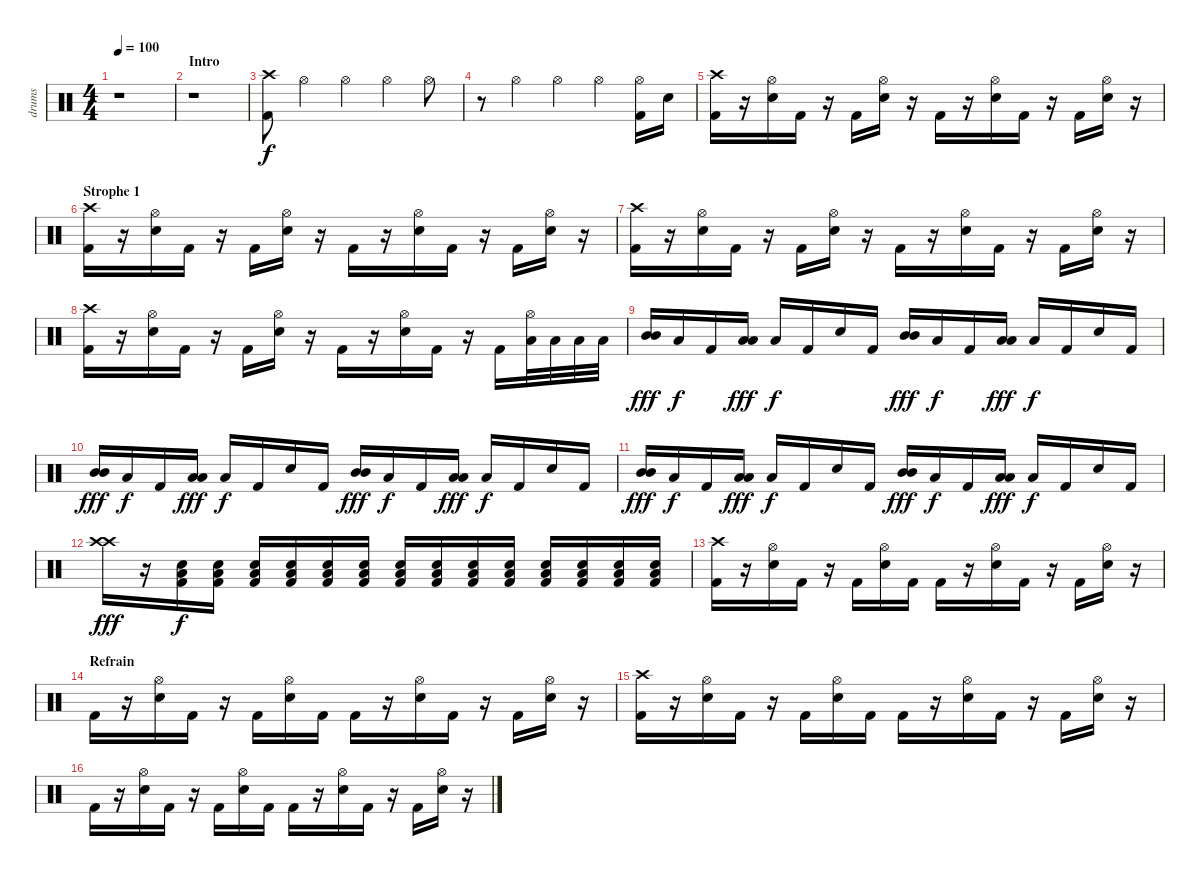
\track ("drums" "drums") {instrument percussion}
\staff {score}
\articulation defaults
\ts (4 4)
\section ("" "")
\tempo 100
\clef neutral
\ks c
r.1{dy f} |
\section ("" "Intro")
r.1 |
("Crash high (hit)" "Kick (hit) 2").8 "Hi-Hat (open)".4 "Hi-Hat (open)".4 "Hi-Hat (open)".4 "Hi-Hat (open)".8 |
r.8 "Hi-Hat (open)".4 "Hi-Hat (open)".4 "Hi-Hat (open)".4 ("Hi-Hat (open)" "Kick (hit) 2").16 "Electric Snare (hit)".16 |
("Crash high (hit)" "Kick (hit) 2").16 r.16 ("Hi-Hat (open)" "Electric Snare (hit)").16 "Kick (hit) 2".16 r.16 "Kick (hit) 2".16 ("Hi-Hat (open)" "Electric Snare (hit)").16 r.16 "Kick (hit) 2".16 r.16 ("Hi-Hat (open)" "Electric Snare (hit)").16 "Kick (hit) 2".16 r.16 "Kick (hit) 2".16 ("Hi-Hat (open)" "Electric Snare (hit)").16 r.16 |
\section ("" "Strophe 1")
("Crash high (hit)" "Kick (hit) 2").16 r.16 ("Hi-Hat (open)" "Electric Snare (hit)").16 "Kick (hit) 2".16 r.16 "Kick (hit) 2".16 ("Hi-Hat (open)" "Electric Snare (hit)").16 r.16 "Kick (hit) 2".16 r.16 ("Hi-Hat (open)" "Electric Snare (hit)").16 "Kick (hit) 2".16 r.16 "Kick (hit) 2".16 ("Hi-Hat (open)" "Electric Snare (hit)").16 r.16 |
("Crash high (hit)" "Kick (hit) 2").16 r.16 ("Hi-Hat (open)" "Electric Snare (hit)").16 "Kick (hit) 2".16 r.16 "Kick (hit) 2".16 ("Hi-Hat (open)" "Electric Snare (hit)").16 r.16 "Kick (hit) 2".16 r.16 ("Hi-Hat (open)" "Electric Snare (hit)").16 "Kick (hit) 2".16 r.16 "Kick (hit) 2".16 ("Hi-Hat (open)" "Electric Snare (hit)").16 r.16 |
("Crash high (hit)" "Kick (hit) 2").16 r.16 ("Hi-Hat (open)" "Electric Snare (hit)").16 "Kick (hit) 2".16 r.16 "Kick (hit) 2".16 ("Hi-Hat (open)" "Electric Snare (hit)").16 r.16 "Kick (hit) 2".16 r.16 ("Hi-Hat (open)" "Electric Snare (hit)").16 "Kick (hit) 2".16 r.16 "Kick (hit) 2".16 ("Hi-Hat (open)" "Low Tom (hit)").32 "Low Tom (hit)".32 "Low Tom (hit)".32 "Low Tom (hit)".32 |
("Mid Tom (hit)" "Mid Tom (hit)").16{dy fff} "Low Floor Tom (hit)".16{dy f} "Kick (hit) 2".16 ("Low Tom (hit)" "Low Tom (hit)").16{dy fff} "Low Floor Tom (hit)".16{dy f} "Kick (hit) 2".16 "Electric Snare (hit)".16 "Kick (hit) 2".16 ("Mid Tom (hit)" "Mid Tom (hit)").16{dy fff} "Low Floor Tom (hit)".16{dy f} "Kick (hit) 2".16 ("Low Tom (hit)" "Low Tom (hit)").16{dy fff} "Low Floor Tom (hit)".16{dy f} "Kick (hit) 2".16 "Electric Snare (hit)".16 "Kick (hit) 2".16 |
("Mid Tom (hit)" "Mid Tom (hit)").16{dy fff} "Low Floor Tom (hit)".16{dy f} "Kick (hit) 2".16 ("Low Tom (hit)" "Low Tom (hit)").16{dy fff} "Low Floor Tom (hit)".16{dy f} "Kick (hit) 2".16 "Electric Snare (hit)".16 "Kick (hit) 2".16 ("Mid Tom (hit)" "Mid Tom (hit)").16{dy fff} "Low Floor Tom (hit)".16{dy f} "Kick (hit) 2".16 ("Low Tom (hit)" "Low Tom (hit)").16{dy fff} "Low Floor Tom (hit)".16{dy f} "Kick (hit) 2".16 "Electric Snare (hit)".16 "Kick (hit) 2".16 |
("Mid Tom (hit)" "Mid Tom (hit)").16{dy fff} "Low Floor Tom (hit)".16{dy f} "Kick (hit) 2".16 ("Low Tom (hit)" "Low Tom (hit)").16{dy fff} "Low Floor Tom (hit)".16{dy f} "Kick (hit) 2".16 "Electric Snare (hit)".16 "Kick (hit) 2".16 ("Mid Tom (hit)" "Mid Tom (hit)").16{dy fff} "Low Floor Tom (hit)".16{dy f} "Kick (hit) 2".16 ("Low Tom (hit)" "Low Tom (hit)").16{dy fff} "Low Floor Tom (hit)".16{dy f} "Kick (hit) 2".16 "Electric Snare (hit)".16 "Kick (hit) 2".16 |
("Crash high (hit)" "Crash high (hit)").16{dy fff} r.16{volume 0} ("Electric Snare (hit)" "Low Floor Tom (hit)" "Kick (hit) 2").16{dy f volume 14} ("Electric Snare (hit)" "Low Floor Tom (hit)" "Kick (hit) 2").16 ("Electric Snare (hit)" "Low Floor Tom (hit)" "Kick (hit) 2").16 ("Electric Snare (hit)" "Low Floor Tom (hit)" "Kick (hit) 2").16 ("Electric Snare (hit)" "Low Floor Tom (hit)" "Kick (hit) 2").16 ("Electric Snare (hit)" "Low Floor Tom (hit)" "Kick (hit) 2").16 ("Electric Snare (hit)" "Low Floor Tom (hit)" "Kick (hit) 2").16 ("Electric Snare (hit)" "Low Floor Tom (hit)" "Kick (hit) 2").16 ("Electric Snare (hit)" "Low Floor Tom (hit)" "Kick (hit) 2").16 ("Electric Snare (hit)" "Low Floor Tom (hit)" "Kick (hit) 2").16 ("Electric Snare (hit)" "Low Floor Tom (hit)" "Kick (hit) 2").16 ("Electric Snare (hit)" "Low Floor Tom (hit)" "Kick (hit) 2").16 ("Electric Snare (hit)" "Low Floor Tom (hit)" "Kick (hit) 2").16 ("Electric Snare (hit)" "Low Floor Tom (hit)" "Kick (hit) 2").16 |
("Crash high (hit)" "Kick (hit) 2").16 r.16 ("Hi-Hat (open)" "Electric Snare (hit)").16 "Kick (hit) 2".16 r.16 "Kick (hit) 2".16 ("Hi-Hat (open)" "Electric Snare (hit)").16 "Kick (hit) 2".16 "Kick (hit) 2".16 r.16 ("Hi-Hat (open)" "Electric Snare (hit)").16 "Kick (hit) 2".16 r.16 "Kick (hit) 2".16 ("Hi-Hat (open)" "Electric Snare (hit)").16 r.16 |
\section ("" "Refrain")
"Kick (hit) 2".16 r.16 ("Hi-Hat (open)" "Electric Snare (hit)").16 "Kick (hit) 2".16 r.16 "Kick (hit) 2".16 ("Hi-Hat (open)" "Electric Snare (hit)").16 "Kick (hit) 2".16 "Kick (hit) 2".16 r.16 ("Hi-Hat (open)" "Electric Snare (hit)").16 "Kick (hit) 2".16 r.16 "Kick (hit) 2".16 ("Hi-Hat (open)" "Electric Snare (hit)").16 r.16 |
("Crash high (hit)" "Kick (hit) 2").16 r.16 ("Hi-Hat (open)" "Electric Snare (hit)").16 "Kick (hit) 2".16 r.16 "Kick (hit) 2".16 ("Hi-Hat (open)" "Electric Snare (hit)").16 "Kick (hit) 2".16 "Kick (hit) 2".16 r.16 ("Hi-Hat (open)" "Electric Snare (hit)").16 "Kick (hit) 2".16 r.16 "Kick (hit) 2".16 ("Hi-Hat (open)" "Electric Snare (hit)").16 r.16 |
"Kick (hit) 2".16 r.16 ("Hi-Hat (open)" "Electric Snare (hit)").16 "Kick (hit) 2".16 r.16 "Kick (hit) 2".16 ("Hi-Hat (open)" "Electric Snare (hit)").16 "Kick (hit) 2".16 "Kick (hit) 2".16 r.16 ("Hi-Hat (open)" "Electric Snare (hit)").16 "Kick (hit) 2".16 r.16 "Kick (hit) 2".16 ("Hi-Hat (open)" "Electric Snare (hit)").16 r.16
